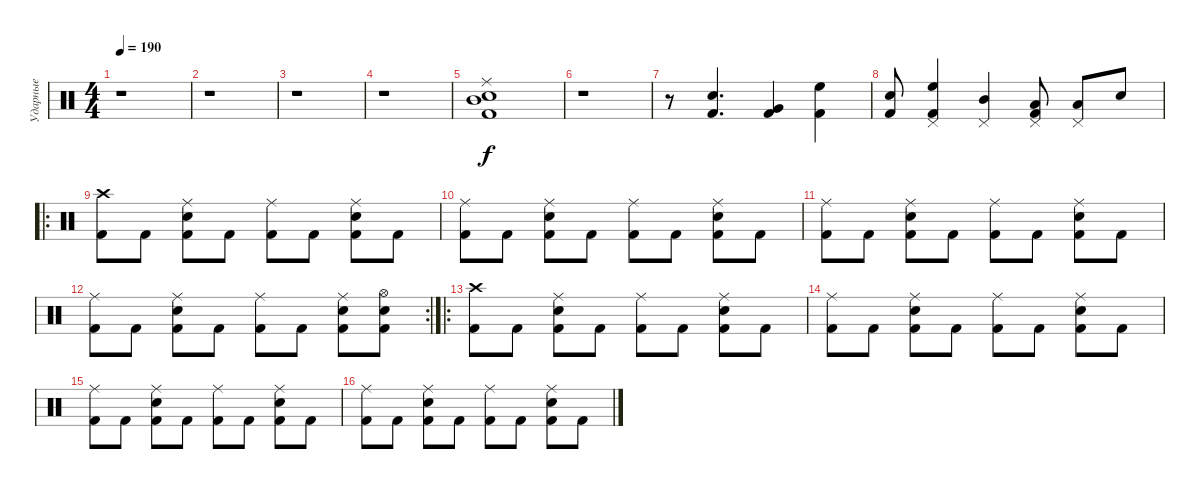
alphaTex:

\track ("Ударные" "Ударные") {instrument percussion}
\staff
\articulation defaults
\ts (4 4)
\tempo 190
\clef neutral
\ks c
r.1{dy f} |
r.1 |
r.1 |
r.1 |
("Ride (middle)" "Mid Tom (hit)" "Snare (hit) 2" "Kick (hit) 2").1 |
r.1 |
r.8 ("Snare (hit) 2" "Kick (hit) 2").4{d} ("Kick (hit) 2" "Very Low Tom (hit)").4 ("Kick (hit) 2" "High Floor Tom (hit)").4 |
("Snare (hit) 2" "Kick (hit) 2").8 ("Kick (hit) 2" "High Floor Tom (hit)" "Pedal Hi-Hat (hit)").4 ("Mid Tom (hit)" "Pedal Hi-Hat (hit)").4 ("Kick (hit) 2" "Low Tom (hit)" "Pedal Hi-Hat (hit)").8 ("Low Floor Tom (hit)" "Pedal Hi-Hat (hit)").8 "Snare (hit) 2".8 |
\ro
("Crash high (hit)" "Kick (hit) 2").8 "Kick (hit) 2".8 ("Ride (middle)" "Snare (hit) 2" "Kick (hit) 2").8 "Kick (hit) 2".8 ("Ride (middle)" "Kick (hit) 2").8 "Kick (hit) 2".8 ("Ride (middle)" "Snare (hit) 2" "Kick (hit) 2").8 "Kick (hit) 2".8 |
("Ride (middle)" "Kick (hit) 2").8 "Kick (hit) 2".8 ("Ride (middle)" "Snare (hit) 2" "Kick (hit) 2").8 "Kick (hit) 2".8 ("Ride (middle)" "Kick (hit) 2").8 "Kick (hit) 2".8 ("Ride (middle)" "Snare (hit) 2" "Kick (hit) 2").8 "Kick (hit) 2".8 |
("Ride (middle)" "Kick (hit) 2").8 "Kick (hit) 2".8 ("Ride (middle)" "Snare (hit) 2" "Kick (hit) 2").8 "Kick (hit) 2".8 ("Ride (middle)" "Kick (hit) 2").8 "Kick (hit) 2".8 ("Ride (middle)" "Snare (hit) 2" "Kick (hit) 2").8 "Kick (hit) 2".8 |
\rc 2
("Ride (middle)" "Kick (hit) 2").8 "Kick (hit) 2".8 ("Ride (middle)" "Snare (hit) 2" "Kick (hit) 2").8 "Kick (hit) 2".8 ("Ride (middle)" "Kick (hit) 2").8 "Kick (hit) 2".8 ("Ride (middle)" "Snare (hit) 2" "Kick (hit) 2").8 ("Hi-Hat (open)" "Snare (hit) 2" "Kick (hit) 2").8 |
\ro
("Crash high (hit)" "Kick (hit) 2").8 "Kick (hit) 2".8 ("Ride (middle)" "Snare (hit) 2" "Kick (hit) 2").8 "Kick (hit) 2".8 ("Ride (middle)" "Kick (hit) 2").8 "Kick (hit) 2".8 ("Ride (middle)" "Snare (hit) 2" "Kick (hit) 2").8 "Kick (hit) 2".8 |
("Ride (middle)" "Kick (hit) 2").8 "Kick (hit) 2".8 ("Ride (middle)" "Snare (hit) 2" "Kick (hit) 2").8 "Kick (hit) 2".8 ("Ride (middle)" "Kick (hit) 2").8 "Kick (hit) 2".8 ("Ride (middle)" "Snare (hit) 2" "Kick (hit) 2").8 "Kick (hit) 2".8 |
("Ride (middle)" "Kick (hit) 2").8 "Kick (hit) 2".8 ("Ride (middle)" "Snare (hit) 2" "Kick (hit) 2").8 "Kick (hit) 2".8 ("Ride (middle)" "Kick (hit) 2").8 "Kick (hit) 2".8 ("Ride (middle)" "Snare (hit) 2" "Kick (hit) 2").8 "Kick (hit) 2".8 |
("Ride (middle)" "Kick (hit) 2").8 "Kick (hit) 2".8 ("Ride (middle)" "Snare (hit) 2" "Kick (hit) 2").8 "Kick (hit) 2".8 ("Ride (middle)" "Kick (hit) 2").8 "Kick (hit) 2".8 ("Ride (middle)" "Snare (hit) 2" "Kick (hit) 2").8 "Kick (hit) 2".8
